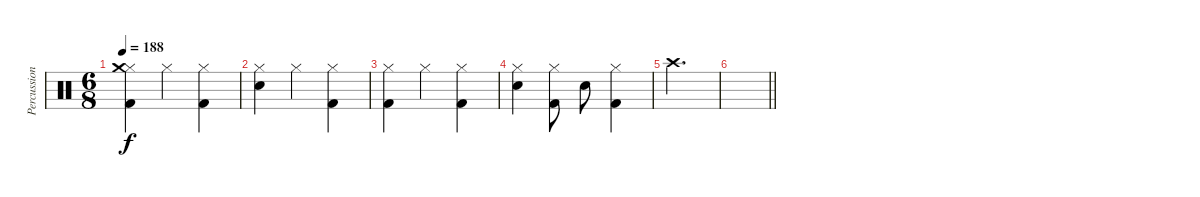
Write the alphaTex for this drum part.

\track ("Percussion" "Percussion") {instrument percussion}
\staff {score}
\articulation defaults
\ts (6 8)
\tempo 188
\clef neutral
\ks c
("Hi-Hat (closed)" "Crash medium (hit)" "Kick (hit) 2").4{dy f} "Hi-Hat (closed)".4 ("Hi-Hat (closed)" "Kick (hit) 2").4 |
("Hi-Hat (closed)" "Snare (hit) 2").4 "Hi-Hat (closed)".4 ("Hi-Hat (closed)" "Kick (hit) 2").4 |
("Hi-Hat (closed)" "Kick (hit) 2").4 "Hi-Hat (closed)".4 ("Hi-Hat (closed)" "Kick (hit) 2").4 |
("Hi-Hat (closed)" "Snare (hit) 2").4 ("Hi-Hat (closed)" "Kick (hit) 2").8 "Electric Snare (hit)".8 ("Hi-Hat (closed)" "Kick (hit) 2").4 |
"Crash high (hit)".2{d} |
\barLineRight lightlight
